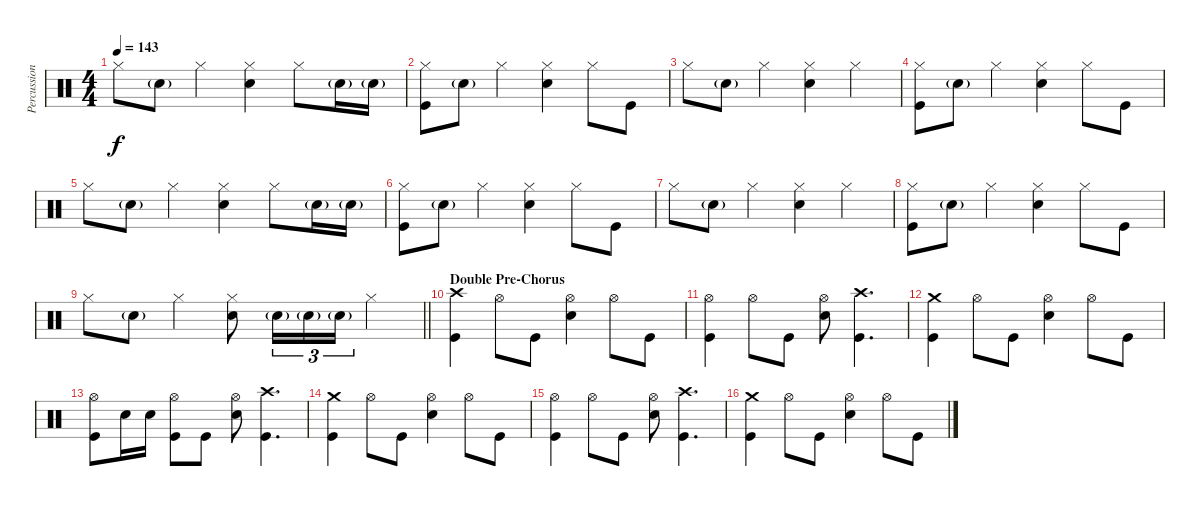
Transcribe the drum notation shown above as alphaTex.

\track ("Percussion" "Percussion") {instrument percussion}
\staff {score}
\articulation defaults
\ts (4 4)
\tempo 143
\clef neutral
\ks c "Hi-Hat (closed)".8{dy f} "Electric Snare (hit)"{g}.8 "Hi-Hat (closed)".4
("Hi-Hat (closed)" "Electric Snare (hit)").4 "Hi-Hat (closed)".8 "Electric Snare (hit)"{g}.16 "Electric Snare (hit)"{g}.16 |
("Hi-Hat (closed)" "Kick (hit)").8 "Electric Snare (hit)"{g}.8 "Hi-Hat (closed)".4 ("Hi-Hat (closed)" "Electric Snare (hit)").4 "Hi-Hat (closed)".8 "Kick (hit)".8 |
"Hi-Hat (closed)".8 "Electric Snare (hit)"{g}.8 "Hi-Hat (closed)".4 ("Hi-Hat (closed)" "Electric Snare (hit)").4 "Hi-Hat (closed)".4 |
("Hi-Hat (closed)" "Kick (hit)").8 "Electric Snare (hit)"{g}.8 "Hi-Hat (closed)".4 ("Hi-Hat (closed)" "Electric Snare (hit)").4 "Hi-Hat (closed)".8 "Kick (hit)".8 |
"Hi-Hat (closed)".8 "Electric Snare (hit)"{g}.8 "Hi-Hat (closed)".4 ("Hi-Hat (closed)" "Electric Snare (hit)").4 "Hi-Hat (closed)".8 "Electric Snare (hit)"{g}.16 "Electric Snare (hit)"{g}.16 |
("Hi-Hat (closed)" "Kick (hit)").8 "Electric Snare (hit)"{g}.8 "Hi-Hat (closed)".4 ("Hi-Hat (closed)" "Electric Snare (hit)").4 "Hi-Hat (closed)".8 "Kick (hit)".8 |
"Hi-Hat (closed)".8 "Electric Snare (hit)"{g}.8 "Hi-Hat (closed)".4 ("Hi-Hat (closed)" "Electric Snare (hit)").4 "Hi-Hat (closed)".4 |
("Hi-Hat (closed)" "Kick (hit)").8 "Electric Snare (hit)"{g}.8 "Hi-Hat (closed)".4 ("Hi-Hat (closed)" "Electric Snare (hit)").4 "Hi-Hat (closed)".8 "Kick (hit)".8 |
\barLineRight lightlight "Hi-Hat (closed)".8 "Electric Snare (hit)"{g}.8 "Hi-Hat (closed)".4
("Hi-Hat (closed)" "Electric Snare (hit)").8 "Electric Snare (hit)"{g}.16{tu (3 2)} "Electric Snare (hit)"{g}.16{tu (3 2)} "Electric Snare (hit)"{g}.16{tu (3 2)} "Hi-Hat (closed)".4 |
\section ("" "Double Pre-Chorus")
("Crash high (hit)" "Kick (hit)").4 "Hi-Hat (open)".8 "Kick (hit)".8 ("Hi-Hat (open)" "Electric Snare (hit)").4 "Hi-Hat (open)".8 "Kick (hit)".8 |
("Hi-Hat (open)" "Kick (hit)").4 "Hi-Hat (open)".8 "Kick (hit)".8 ("Hi-Hat (open)" "Electric Snare (hit)").8 ("Crash high (hit)" "Kick (hit)").4{d} |
("Crash medium (hit)" "Kick (hit)").4 "Hi-Hat (open)".8 "Kick (hit)".8 ("Hi-Hat (open)" "Electric Snare (hit)").4 "Hi-Hat (open)".8 "Kick (hit)".8 |
("Hi-Hat (open)" "Kick (hit)").8 "Electric Snare (hit)".16 "Electric Snare (hit)".16 ("Hi-Hat (open)" "Kick (hit)").8 "Kick (hit)".8 ("Hi-Hat (open)" "Electric Snare (hit)").8 ("Crash high (hit)" "Kick (hit)").4{d} |
("Crash medium (hit)" "Kick (hit)").4 "Hi-Hat (open)".8 "Kick (hit)".8 ("Hi-Hat (open)" "Electric Snare (hit)").4 "Hi-Hat (open)".8 "Kick (hit)".8 |
("Hi-Hat (open)" "Kick (hit)").4 "Hi-Hat (open)".8 "Kick (hit)".8 ("Hi-Hat (open)" "Electric Snare (hit)").8 ("Crash high (hit)" "Kick (hit)").4{d} |
("Crash medium (hit)" "Kick (hit)").4 "Hi-Hat (open)".8 "Kick (hit)".8 ("Hi-Hat (open)" "Electric Snare (hit)").4 "Hi-Hat (open)".8 "Kick (hit)".8
